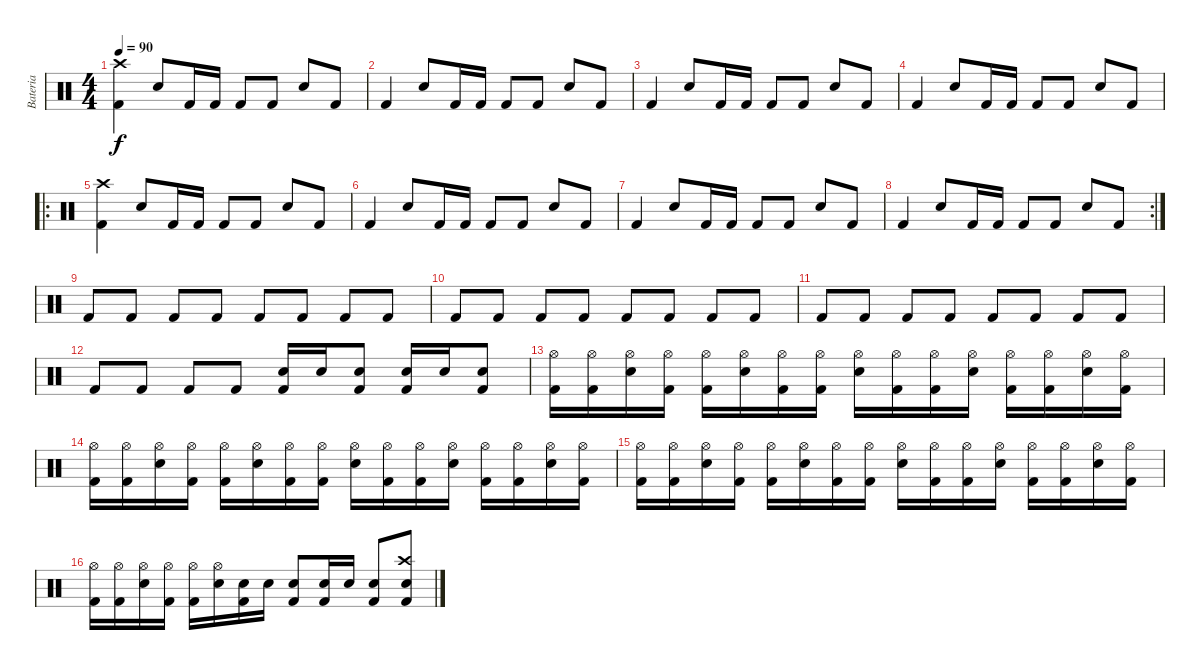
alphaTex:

\track ("Bateria" "Bateria") {instrument percussion}
\staff {score}
\articulation defaults
\ts (4 4)
\tempo 90
\clef neutral
\ks c
("Kick (hit) 2" "Crash high (hit)").4{dy f} "Electric Snare (hit)".8 "Kick (hit) 2".16 "Kick (hit) 2".16 "Kick (hit) 2".8 "Kick (hit) 2".8 "Electric Snare (hit)".8 "Kick (hit) 2".8 |
"Kick (hit) 2".4 "Electric Snare (hit)".8 "Kick (hit) 2".16 "Kick (hit) 2".16 "Kick (hit) 2".8 "Kick (hit) 2".8 "Electric Snare (hit)".8 "Kick (hit) 2".8 |
"Kick (hit) 2".4 "Electric Snare (hit)".8 "Kick (hit) 2".16 "Kick (hit) 2".16 "Kick (hit) 2".8 "Kick (hit) 2".8 "Electric Snare (hit)".8 "Kick (hit) 2".8 |
"Kick (hit) 2".4 "Electric Snare (hit)".8 "Kick (hit) 2".16 "Kick (hit) 2".16 "Kick (hit) 2".8 "Kick (hit) 2".8 "Electric Snare (hit)".8 "Kick (hit) 2".8 |
\ro
("Kick (hit) 2" "Crash high (hit)").4 "Electric Snare (hit)".8 "Kick (hit) 2".16 "Kick (hit) 2".16 "Kick (hit) 2".8 "Kick (hit) 2".8 "Electric Snare (hit)".8 "Kick (hit) 2".8 |
"Kick (hit) 2".4 "Electric Snare (hit)".8 "Kick (hit) 2".16 "Kick (hit) 2".16 "Kick (hit) 2".8 "Kick (hit) 2".8 "Electric Snare (hit)".8 "Kick (hit) 2".8 |
"Kick (hit) 2".4 "Electric Snare (hit)".8 "Kick (hit) 2".16 "Kick (hit) 2".16 "Kick (hit) 2".8 "Kick (hit) 2".8 "Electric Snare (hit)".8 "Kick (hit) 2".8 |
\rc 2 "Kick (hit) 2".4 "Electric Snare (hit)".8 "Kick (hit) 2".16 "Kick (hit) 2".16 "Kick (hit) 2".8 "Kick (hit) 2".8 "Electric Snare (hit)".8 "Kick (hit) 2".8
|
"Kick (hit) 2".8 "Kick (hit) 2".8 "Kick (hit) 2".8 "Kick (hit) 2".8 "Kick (hit) 2".8 "Kick (hit) 2".8 "Kick (hit) 2".8 "Kick (hit) 2".8 |
"Kick (hit) 2".8 "Kick (hit) 2".8 "Kick (hit) 2".8 "Kick (hit) 2".8 "Kick (hit) 2".8 "Kick (hit) 2".8 "Kick (hit) 2".8 "Kick (hit) 2".8 |
"Kick (hit) 2".8 "Kick (hit) 2".8 "Kick (hit) 2".8 "Kick (hit) 2".8 "Kick (hit) 2".8 "Kick (hit) 2".8 "Kick (hit) 2".8 "Kick (hit) 2".8 |
"Kick (hit) 2".8 "Kick (hit) 2".8 "Kick (hit) 2".8 "Kick (hit) 2".8 ("Kick (hit) 2" "Electric Snare (hit)").16 "Electric Snare (hit)".16 ("Kick (hit) 2" "Electric Snare (hit)").8 ("Kick (hit) 2" "Electric Snare (hit)").16 "Electric Snare (hit)".16 ("Kick (hit) 2" "Electric Snare (hit)").8 |
("Kick (hit) 2" "Hi-Hat (open)").16 ("Kick (hit) 2" "Hi-Hat (open)").16 ("Electric Snare (hit)" "Hi-Hat (open)").16 ("Kick (hit) 2" "Hi-Hat (open)").16 ("Kick (hit) 2" "Hi-Hat (open)").16 ("Electric Snare (hit)" "Hi-Hat (open)").16 ("Kick (hit) 2" "Hi-Hat (open)").16 ("Kick (hit) 2" "Hi-Hat (open)").16 ("Electric Snare (hit)" "Hi-Hat (open)").16 ("Kick (hit) 2" "Hi-Hat (open)").16 ("Kick (hit) 2" "Hi-Hat (open)").16 ("Electric Snare (hit)" "Hi-Hat (open)").16 ("Kick (hit) 2" "Hi-Hat (open)").16 ("Kick (hit) 2" "Hi-Hat (open)").16 ("Electric Snare (hit)" "Hi-Hat (open)").16 ("Kick (hit) 2" "Hi-Hat (open)").16 |
("Kick (hit) 2" "Hi-Hat (open)").16 ("Kick (hit) 2" "Hi-Hat (open)").16 ("Electric Snare (hit)" "Hi-Hat (open)").16 ("Kick (hit) 2" "Hi-Hat (open)").16 ("Kick (hit) 2" "Hi-Hat (open)").16 ("Electric Snare (hit)" "Hi-Hat (open)").16 ("Kick (hit) 2" "Hi-Hat (open)").16 ("Kick (hit) 2" "Hi-Hat (open)").16 ("Electric Snare (hit)" "Hi-Hat (open)").16 ("Kick (hit) 2" "Hi-Hat (open)").16 ("Kick (hit) 2" "Hi-Hat (open)").16 ("Electric Snare (hit)" "Hi-Hat (open)").16 ("Kick (hit) 2" "Hi-Hat (open)").16 ("Kick (hit) 2" "Hi-Hat (open)").16 ("Electric Snare (hit)" "Hi-Hat (open)").16 ("Kick (hit) 2" "Hi-Hat (open)").16 |
("Kick (hit) 2" "Hi-Hat (open)").16 ("Kick (hit) 2" "Hi-Hat (open)").16 ("Electric Snare (hit)" "Hi-Hat (open)").16 ("Kick (hit) 2" "Hi-Hat (open)").16 ("Kick (hit) 2" "Hi-Hat (open)").16 ("Electric Snare (hit)" "Hi-Hat (open)").16 ("Kick (hit) 2" "Hi-Hat (open)").16 ("Kick (hit) 2" "Hi-Hat (open)").16 ("Electric Snare (hit)" "Hi-Hat (open)").16 ("Kick (hit) 2" "Hi-Hat (open)").16 ("Kick (hit) 2" "Hi-Hat (open)").16 ("Electric Snare (hit)" "Hi-Hat (open)").16 ("Kick (hit) 2" "Hi-Hat (open)").16 ("Kick (hit) 2" "Hi-Hat (open)").16 ("Electric Snare (hit)" "Hi-Hat (open)").16 ("Kick (hit) 2" "Hi-Hat (open)").16 |
("Kick (hit) 2" "Hi-Hat (open)").16 ("Kick (hit) 2" "Hi-Hat (open)").16 ("Electric Snare (hit)" "Hi-Hat (open)").16 ("Kick (hit) 2" "Hi-Hat (open)").16 ("Kick (hit) 2" "Hi-Hat (open)").16 ("Electric Snare (hit)" "Hi-Hat (open)").16 ("Kick (hit) 2" "Electric Snare (hit)").16 "Electric Snare (hit)".16 ("Kick (hit) 2" "Electric Snare (hit)").8 ("Kick (hit) 2" "Electric Snare (hit)").16 "Electric Snare (hit)".16 ("Kick (hit) 2" "Electric Snare (hit)").8 ("Kick (hit) 2" "Electric Snare (hit)" "Crash high (hit)").8
